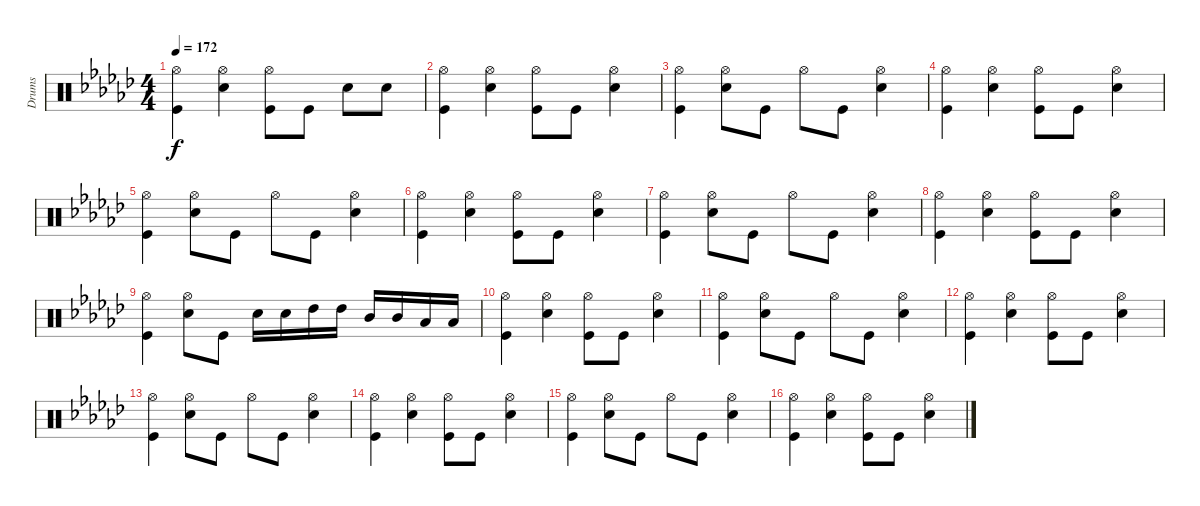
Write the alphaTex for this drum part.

\track ("Drums" "Drums") {instrument percussion}
\staff {score}
\articulation defaults
\ts (4 4)
\tempo 172
\clef neutral
\ks ebminor
("Hi-Hat (open)" "Kick (hit)").4{dy f} ("Hi-Hat (open)" "Snare (hit) 2").4 ("Hi-Hat (open)" "Kick (hit)").8 "Kick (hit)".8 "Snare (hit) 2".8 "Snare (hit) 2".8 |
("Hi-Hat (open)" "Kick (hit)").4 ("Hi-Hat (open)" "Snare (hit) 2").4 ("Hi-Hat (open)" "Kick (hit)").8 "Kick (hit)".8 ("Hi-Hat (open)" "Snare (hit) 2").4 |
("Hi-Hat (open)" "Kick (hit)").4 ("Hi-Hat (open)" "Snare (hit) 2").8 "Kick (hit)".8 "Hi-Hat (open)".8 "Kick (hit)".8 ("Hi-Hat (open)" "Snare (hit) 2").4 |
("Hi-Hat (open)" "Kick (hit)").4 ("Hi-Hat (open)" "Snare (hit) 2").4 ("Hi-Hat (open)" "Kick (hit)").8 "Kick (hit)".8 ("Hi-Hat (open)" "Snare (hit) 2").4 |
("Hi-Hat (open)" "Kick (hit)").4 ("Hi-Hat (open)" "Snare (hit) 2").8 "Kick (hit)".8 "Hi-Hat (open)".8 "Kick (hit)".8 ("Hi-Hat (open)" "Snare (hit) 2").4 |
("Hi-Hat (open)" "Kick (hit)").4 ("Hi-Hat (open)" "Snare (hit) 2").4 ("Hi-Hat (open)" "Kick (hit)").8 "Kick (hit)".8 ("Hi-Hat (open)" "Snare (hit) 2").4 |
("Hi-Hat (open)" "Kick (hit)").4 ("Hi-Hat (open)" "Snare (hit) 2").8 "Kick (hit)".8 "Hi-Hat (open)".8 "Kick (hit)".8 ("Hi-Hat (open)" "Snare (hit) 2").4 |
("Hi-Hat (open)" "Kick (hit)").4 ("Hi-Hat (open)" "Snare (hit) 2").4 ("Hi-Hat (open)" "Kick (hit)").8 "Kick (hit)".8 ("Hi-Hat (open)" "Snare (hit) 2").4 |
("Hi-Hat (open)" "Kick (hit)").4 ("Hi-Hat (open)" "Snare (hit) 2").8 "Kick (hit)".8 "Snare (hit) 2".16 "Snare (hit) 2".16 "High Tom (hit)".16 "High Tom (hit)".16 "Mid Tom (hit)".16 "Mid Tom (hit)".16 "Low Tom (hit)".16 "Low Tom (hit)".16 |
("Hi-Hat (open)" "Kick (hit)").4 ("Hi-Hat (open)" "Snare (hit) 2").4 ("Hi-Hat (open)" "Kick (hit)").8 "Kick (hit)".8 ("Hi-Hat (open)" "Snare (hit) 2").4 |
("Hi-Hat (open)" "Kick (hit)").4 ("Hi-Hat (open)" "Snare (hit) 2").8 "Kick (hit)".8 "Hi-Hat (open)".8 "Kick (hit)".8 ("Hi-Hat (open)" "Snare (hit) 2").4 |
("Hi-Hat (open)" "Kick (hit)").4 ("Hi-Hat (open)" "Snare (hit) 2").4 ("Hi-Hat (open)" "Kick (hit)").8 "Kick (hit)".8 ("Hi-Hat (open)" "Snare (hit) 2").4 |
("Hi-Hat (open)" "Kick (hit)").4 ("Hi-Hat (open)" "Snare (hit) 2").8 "Kick (hit)".8 "Hi-Hat (open)".8 "Kick (hit)".8 ("Hi-Hat (open)" "Snare (hit) 2").4 |
("Hi-Hat (open)" "Kick (hit)").4 ("Hi-Hat (open)" "Snare (hit) 2").4 ("Hi-Hat (open)" "Kick (hit)").8 "Kick (hit)".8 ("Hi-Hat (open)" "Snare (hit) 2").4 |
("Hi-Hat (open)" "Kick (hit)").4 ("Hi-Hat (open)" "Snare (hit) 2").8 "Kick (hit)".8 "Hi-Hat (open)".8 "Kick (hit)".8 ("Hi-Hat (open)" "Snare (hit) 2").4 |
("Hi-Hat (open)" "Kick (hit)").4 ("Hi-Hat (open)" "Snare (hit) 2").4 ("Hi-Hat (open)" "Kick (hit)").8 "Kick (hit)".8 ("Hi-Hat (open)" "Snare (hit) 2").4
